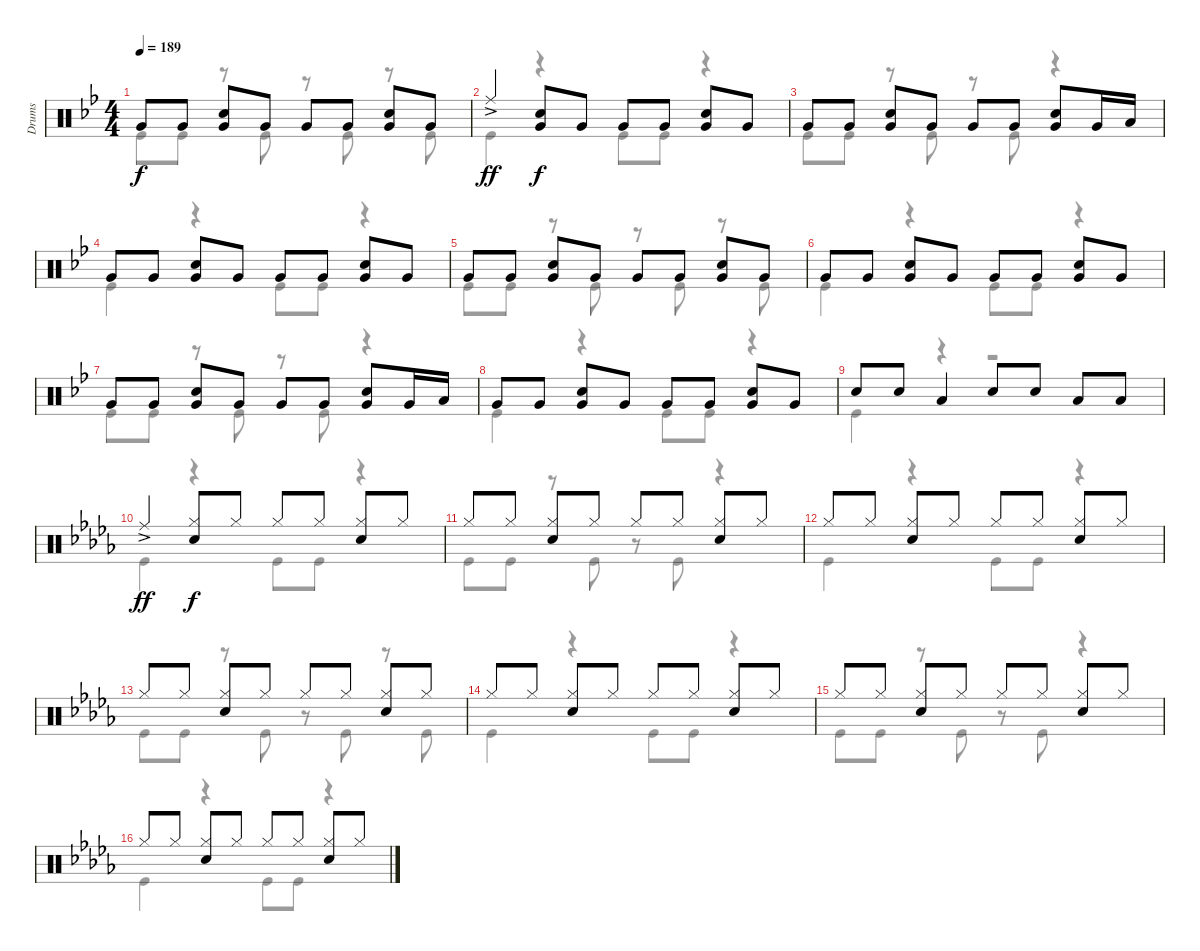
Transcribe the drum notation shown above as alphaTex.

\track ("Drums" "Drums") {instrument percussion}
\staff {score}
\articulation defaults
\voice
\ts (4 4)
\tempo 189
\clef neutral
\ks bb "Very Low Tom (hit)".8{dy f} "Very Low Tom (hit)".8
("Snare (hit) 2" "Very Low Tom (hit)").8 "Very Low Tom (hit)".8 "Very Low Tom (hit)".8 "Very Low Tom (hit)".8 ("Snare (hit) 2" "Very Low Tom (hit)").8 "Very Low Tom (hit)".8 |
"Ride (middle)"{ac}.4{dy ff} ("Snare (hit) 2" "Very Low Tom (hit)").8{dy f} "Very Low Tom (hit)".8 "Very Low Tom (hit)".8 "Very Low Tom (hit)".8 ("Snare (hit) 2" "Very Low Tom (hit)").8 "Very Low Tom (hit)".8 |
"Very Low Tom (hit)".8 "Very Low Tom (hit)".8 ("Snare (hit) 2" "Very Low Tom (hit)").8 "Very Low Tom (hit)".8 "Very Low Tom (hit)".8 "Very Low Tom (hit)".8 ("Snare (hit) 2" "Very Low Tom (hit)").8 "Very Low Tom (hit)".16 "Low Tom (hit)".16 |
"Very Low Tom (hit)".8 "Very Low Tom (hit)".8 ("Snare (hit) 2" "Very Low Tom (hit)").8 "Very Low Tom (hit)".8 "Very Low Tom (hit)".8 "Very Low Tom (hit)".8 ("Snare (hit) 2" "Very Low Tom (hit)").8 "Very Low Tom (hit)".8 |
"Very Low Tom (hit)".8 "Very Low Tom (hit)".8 ("Snare (hit) 2" "Very Low Tom (hit)").8 "Very Low Tom (hit)".8 "Very Low Tom (hit)".8 "Very Low Tom (hit)".8 ("Snare (hit) 2" "Very Low Tom (hit)").8 "Very Low Tom (hit)".8 |
"Very Low Tom (hit)".8 "Very Low Tom (hit)".8 ("Snare (hit) 2" "Very Low Tom (hit)").8 "Very Low Tom (hit)".8 "Very Low Tom (hit)".8 "Very Low Tom (hit)".8 ("Snare (hit) 2" "Very Low Tom (hit)").8 "Very Low Tom (hit)".8 |
"Very Low Tom (hit)".8 "Very Low Tom (hit)".8 ("Snare (hit) 2" "Very Low Tom (hit)").8 "Very Low Tom (hit)".8 "Very Low Tom (hit)".8 "Very Low Tom (hit)".8 ("Snare (hit) 2" "Very Low Tom (hit)").8 "Very Low Tom (hit)".16 "Low Tom (hit)".16 |
"Very Low Tom (hit)".8 "Very Low Tom (hit)".8 ("Snare (hit) 2" "Very Low Tom (hit)").8 "Very Low Tom (hit)".8 "Very Low Tom (hit)".8 "Very Low Tom (hit)".8 ("Snare (hit) 2" "Very Low Tom (hit)").8 "Very Low Tom (hit)".8 |
"Snare (hit) 2".8 "Snare (hit) 2".8 "Low Tom (hit)".4 "Snare (hit) 2".8 "Snare (hit) 2".8 "Low Tom (hit)".8 "Low Tom (hit)".8 |
\ks db "Ride (middle)"{ac}.4{dy ff}
("Hi-Hat (closed)" "Snare (hit) 2").8{dy f} "Hi-Hat (closed)".8 "Hi-Hat (closed)".8 "Hi-Hat (closed)".8 ("Hi-Hat (closed)" "Snare (hit) 2").8 "Hi-Hat (closed)".8 |
"Hi-Hat (closed)".8 "Hi-Hat (closed)".8 ("Hi-Hat (closed)" "Snare (hit) 2").8 "Hi-Hat (closed)".8 "Hi-Hat (closed)".8 "Hi-Hat (closed)".8 ("Hi-Hat (closed)" "Snare (hit) 2").8 "Hi-Hat (closed)".8 |
"Hi-Hat (closed)".8 "Hi-Hat (closed)".8 ("Hi-Hat (closed)" "Snare (hit) 2").8 "Hi-Hat (closed)".8 "Hi-Hat (closed)".8 "Hi-Hat (closed)".8 ("Hi-Hat (closed)" "Snare (hit) 2").8 "Hi-Hat (closed)".8 |
"Hi-Hat (closed)".8 "Hi-Hat (closed)".8 ("Hi-Hat (closed)" "Snare (hit) 2").8 "Hi-Hat (closed)".8 "Hi-Hat (closed)".8 "Hi-Hat (closed)".8 ("Hi-Hat (closed)" "Snare (hit) 2").8 "Hi-Hat (closed)".8 |
"Hi-Hat (closed)".8 "Hi-Hat (closed)".8 ("Hi-Hat (closed)" "Snare (hit) 2").8 "Hi-Hat (closed)".8 "Hi-Hat (closed)".8 "Hi-Hat (closed)".8 ("Hi-Hat (closed)" "Snare (hit) 2").8 "Hi-Hat (closed)".8 |
"Hi-Hat (closed)".8 "Hi-Hat (closed)".8 ("Hi-Hat (closed)" "Snare (hit) 2").8 "Hi-Hat (closed)".8 "Hi-Hat (closed)".8 "Hi-Hat (closed)".8 ("Hi-Hat (closed)" "Snare (hit) 2").8 "Hi-Hat (closed)".8 |
"Hi-Hat (closed)".8 "Hi-Hat (closed)".8 ("Hi-Hat (closed)" "Snare (hit) 2").8 "Hi-Hat (closed)".8 "Hi-Hat (closed)".8 "Hi-Hat (closed)".8 ("Hi-Hat (closed)" "Snare (hit) 2").8 "Hi-Hat (closed)".8
\voice
\clef neutral
\ottava regular
\simile none
\ks bb "Kick (hit)".8{dy f} "Kick (hit)".8
r.8 "Kick (hit)".8 r.8 "Kick (hit)".8 r.8 "Kick (hit)".8 |
"Kick (hit)".4 r.4 "Kick (hit)".8 "Kick (hit)".8 r.4 |
"Kick (hit)".8 "Kick (hit)".8 r.8 "Kick (hit)".8 r.8 "Kick (hit)".8 r.4 |
"Kick (hit)".4 r.4 "Kick (hit)".8 "Kick (hit)".8 r.4 |
"Kick (hit)".8 "Kick (hit)".8 r.8 "Kick (hit)".8 r.8 "Kick (hit)".8 r.8 "Kick (hit)".8 |
"Kick (hit)".4 r.4 "Kick (hit)".8 "Kick (hit)".8 r.4 |
"Kick (hit)".8 "Kick (hit)".8 r.8 "Kick (hit)".8 r.8 "Kick (hit)".8 r.4 |
"Kick (hit)".4 r.4 "Kick (hit)".8 "Kick (hit)".8 r.4 |
"Kick (hit)".4 r.4 r.2 |
\ks db "Kick (hit)".4
r.4 "Kick (hit)".8 "Kick (hit)".8 r.4 |
"Kick (hit)".8 "Kick (hit)".8 r.8 "Kick (hit)".8 r.8 "Kick (hit)".8 r.4 |
"Kick (hit)".4 r.4 "Kick (hit)".8 "Kick (hit)".8 r.4 |
"Kick (hit)".8 "Kick (hit)".8 r.8 "Kick (hit)".8 r.8 "Kick (hit)".8 r.8 "Kick (hit)".8 |
"Kick (hit)".4 r.4 "Kick (hit)".8 "Kick (hit)".8 r.4 |
"Kick (hit)".8 "Kick (hit)".8 r.8 "Kick (hit)".8 r.8 "Kick (hit)".8 r.4 |
"Kick (hit)".4 r.4 "Kick (hit)".8 "Kick (hit)".8 r.4
